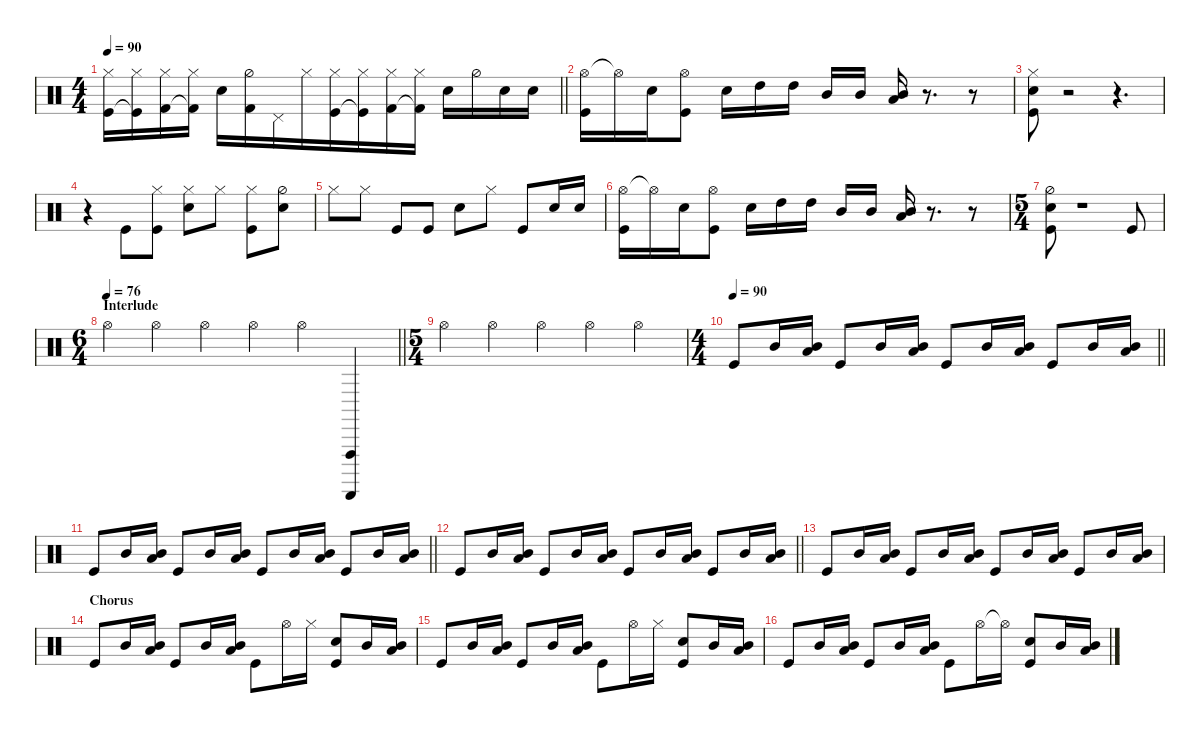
\defaultSystemsLayout 4
\hideDynamics
\bracketExtendMode nobrackets
\singleTrackTrackNamePolicy hidden
\multiTrackTrackNamePolicy hidden
\otherSystemsTrackNameOrientation horizontal
\track ("Drumkit" "drm.") {instrument percussion}
\staff {score}
\articulation defaults
\ts (4 4)
\tempo 90
\clef neutral
\barLineRight lightlight
\ks c
("Kick (hit)" "Hi-Hat (closed)").16{dy f beam Down} ("Kick (hit)"{t} "Hi-Hat (closed)").16{beam Down} ("Kick (hit) 2" "Hi-Hat (closed)").16{beam Down} ("Kick (hit) 2"{t} "Hi-Hat (closed)").16{beam Down beam split} "Snare (hit) 2".16{beam Down} ("Kick (hit) 2" "Hi-Hat (half)").16{beam Down} "Pedal Hi-Hat (hit)".16{beam Down beam merge} "Hi-Hat (closed)".16{beam Down beam merge} ("Kick (hit)" "Hi-Hat (closed)").16{beam Down beam merge} ("Kick (hit)"{t} "Hi-Hat (closed)").16{beam Down} ("Kick (hit) 2" "Hi-Hat (closed)").16{beam Down} ("Kick (hit) 2"{t} "Hi-Hat (closed)").16{beam Down} "Snare (hit) 2".16{beam Down} "Hi-Hat (half)".16{beam Down} "Snare (hit) 2".16{beam Down beam merge} "Snare (hit) 2".16{beam Down} |
("Hi-Hat (open)" "Kick (hit)").16{dy mf beam Down} "Hi-Hat (open)"{t}.16{beam Down} "Snare (hit) 2".16{beam Down} ("Hi-Hat (open)" "Kick (hit)").8{beam Down} "Snare (hit) 2".16{beam Down} "High Tom (hit)".16{beam Down beam merge} "High Tom (hit)".16{beam Down} "Mid Tom (hit)".16{beam Up beam merge} "Mid Tom (hit)".16{beam Up beam split} ("Low Tom (hit)" "Mid Tom (hit)").16{beam Up} r.8{d beam Up} r.8{beam Up} |
("Kick (hit)" "Hi-Hat (closed)" "Snare (hit) 2").8{dy mp beam Down} r.2{beam Down} r.4{d beam Down} |
r.4{beam Down} "Kick (hit)".8{dy mf beam Down} ("Hi-Hat (closed)" "Kick (hit)").8{beam Down} ("Hi-Hat (closed)" "Snare (hit) 2").8{beam Down} "Hi-Hat (closed)".8{beam Down} ("Hi-Hat (closed)" "Kick (hit)").8{beam Down} ("Snare (hit) 2" "Hi-Hat (half)").8{beam Down} |
"Hi-Hat (closed)".8{beam Down} "Hi-Hat (closed)".8{beam Down} "Kick (hit)".8{beam Up} "Kick (hit)".8{beam Up} "Snare (hit) 2".8{beam Down} "Hi-Hat (closed)".8{beam Down} "Kick (hit)".8{beam Up} "Snare (hit) 2".16{beam Up} "Snare (hit) 2".16{beam Up} |
("Hi-Hat (open)" "Kick (hit)").16{beam Down} "Hi-Hat (open)"{t}.16{beam Down} "Snare (hit) 2".16{beam Down} ("Hi-Hat (open)" "Kick (hit)").8{beam Down} "Snare (hit) 2".16{beam Down} "High Tom (hit)".16{beam Down beam merge} "High Tom (hit)".16{beam Down} "Mid Tom (hit)".16{beam Up beam merge} "Mid Tom (hit)".16{beam Up beam split} ("Low Tom (hit)" "Mid Tom (hit)").16{beam Up} r.8{d beam Up} r.8{beam Up} |
\ts (5 4)
\beaming (8 6 4)
("Kick (hit)" "Hi-Hat (half)" "Snare (hit) 2").8{dy ff beam Down} r.1{beam Down} "Kick (hit)".8{beam Up} |
\ts (6 4)
\beaming (8 6 6)
\section ("" "Interlude")
\tempo 76
\barLineRight lightlight "Hi-Hat (open)".4{dy f beam Down} "Hi-Hat (open)".4{beam Down} "Hi-Hat (open)".4{beam Down} "Hi-Hat (open)".4{beam Down} "Hi-Hat (open)".4{beam Down}
("Guiro (scrap-return)" "Vibraslap (hit)").4{beam Up} |
\ts (5 4)
\beaming (8 6 4)
"Hi-Hat (open)".4{beam Down} "Hi-Hat (open)".4{beam Down} "Hi-Hat (open)".4{beam Down} "Hi-Hat (open)".4{beam Down} "Hi-Hat (open)".4{beam Down} |
\ts (4 4)
\beaming (8 2 2 2 2)
\tempo 90
\barLineRight lightlight "Kick (hit)".8{dy mf beam Up} "Mid Tom (hit)".16{beam Up}
("Mid Tom (hit)" "Low Tom (hit)").16{beam Up} "Kick (hit)".8{beam Up} "Mid Tom (hit)".16{beam Up} ("Mid Tom (hit)" "Low Tom (hit)").16{beam Up} "Kick (hit)".8{beam Up} "Mid Tom (hit)".16{beam Up} ("Mid Tom (hit)" "Low Tom (hit)").16{beam Up} "Kick (hit)".8{beam Up} "Mid Tom (hit)".16{beam Up} ("Mid Tom (hit)" "Low Tom (hit)").16{beam Up} |
\barLineRight lightlight "Kick (hit)".8{beam Up} "Mid Tom (hit)".16{beam Up}
("Mid Tom (hit)" "Low Tom (hit)").16{beam Up} "Kick (hit)".8{beam Up} "Mid Tom (hit)".16{beam Up} ("Mid Tom (hit)" "Low Tom (hit)").16{beam Up} "Kick (hit)".8{beam Up} "Mid Tom (hit)".16{beam Up} ("Mid Tom (hit)" "Low Tom (hit)").16{beam Up} "Kick (hit)".8{beam Up} "Mid Tom (hit)".16{beam Up} ("Mid Tom (hit)" "Low Tom (hit)").16{beam Up} |
\barLineRight lightlight "Kick (hit)".8{beam Up} "Mid Tom (hit)".16{beam Up}
("Mid Tom (hit)" "Low Tom (hit)").16{beam Up} "Kick (hit)".8{beam Up} "Mid Tom (hit)".16{beam Up} ("Mid Tom (hit)" "Low Tom (hit)").16{beam Up} "Kick (hit)".8{beam Up} "Mid Tom (hit)".16{beam Up} ("Mid Tom (hit)" "Low Tom (hit)").16{beam Up} "Kick (hit)".8{beam Up} "Mid Tom (hit)".16{beam Up} ("Mid Tom (hit)" "Low Tom (hit)").16{beam Up} |
"Kick (hit)".8{beam Up} "Mid Tom (hit)".16{beam Up} ("Mid Tom (hit)" "Low Tom (hit)").16{beam Up} "Kick (hit)".8{beam Up} "Mid Tom (hit)".16{beam Up} ("Mid Tom (hit)" "Low Tom (hit)").16{beam Up} "Kick (hit)".8{beam Up} "Mid Tom (hit)".16{beam Up} ("Mid Tom (hit)" "Low Tom (hit)").16{beam Up} "Kick (hit)".8{beam Up} "Mid Tom (hit)".16{beam Up} ("Mid Tom (hit)" "Low Tom (hit)").16{beam Up} |
\section ("" "Chorus")
"Kick (hit)".8{beam Up} "Mid Tom (hit)".16{beam Up} ("Mid Tom (hit)" "Low Tom (hit)").16{beam Up} "Kick (hit)".8{beam Up} "Mid Tom (hit)".16{beam Up} ("Mid Tom (hit)" "Low Tom (hit)").16{beam Up} "Kick (hit)".8{beam Down} "Hi-Hat (open)".16{dy f beam Down} "Hi-Hat (closed)".16{beam Down} ("Kick (hit)" "Snare (hit) 2").8{beam Up} "Mid Tom (hit)".16{beam Up} ("Mid Tom (hit)" "Low Tom (hit)").16{beam Up} |
"Kick (hit)".8{beam Up} "Mid Tom (hit)".16{beam Up} ("Mid Tom (hit)" "Low Tom (hit)").16{beam Up} "Kick (hit)".8{beam Up} "Mid Tom (hit)".16{beam Up} ("Mid Tom (hit)" "Low Tom (hit)").16{beam Up} "Kick (hit)".8{beam Down} "Hi-Hat (open)".16{dy ff beam Down} "Hi-Hat (closed)".16{beam Down} ("Kick (hit)" "Snare (hit) 2").8{beam Up} "Mid Tom (hit)".16{beam Up} ("Mid Tom (hit)" "Low Tom (hit)").16{beam Up} |
"Kick (hit)".8{dy mf beam Up} "Mid Tom (hit)".16{beam Up} ("Mid Tom (hit)" "Low Tom (hit)").16{beam Up} "Kick (hit)".8{beam Up} "Mid Tom (hit)".16{beam Up} ("Mid Tom (hit)" "Low Tom (hit)").16{beam Up} "Kick (hit)".8{beam Down} "Hi-Hat (open)".16{dy f beam Down} "Hi-Hat (open)"{t}.16{beam Down} ("Kick (hit)" "Snare (hit) 2").8{beam Up} "Mid Tom (hit)".16{beam Up} ("Mid Tom (hit)" "Low Tom (hit)").16{beam Up}
